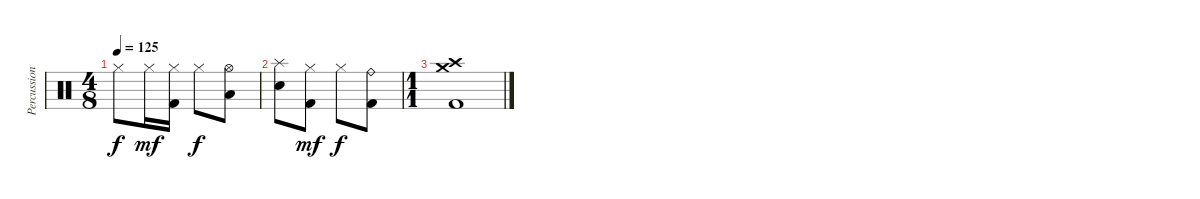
\track ("Percussion" "Percussion") {instrument percussion}
\staff {score}
\articulation defaults
\ts (4 8)
\tempo 125
\clef neutral
\ks c "Hi-Hat (closed)".8{dy f} "Hi-Hat (closed)".16{dy mf}
("Hi-Hat (closed)" "Kick (hit) 2").16 "Hi-Hat (closed)".8{dy f} ("Hi-Hat (open)" "Low Tom (hit)").8 |
("Splash (hit)" "Snare (hit) 2").8 ("Hi-Hat (closed)" "Kick (hit) 2").8{dy mf} "Hi-Hat (closed)".8{dy f} ("Ride (bell)" "Kick (hit) 2").8 |
\ts (1 1)
("Crash high (hit)" "Crash medium (hit)" "Kick (hit) 2").1
